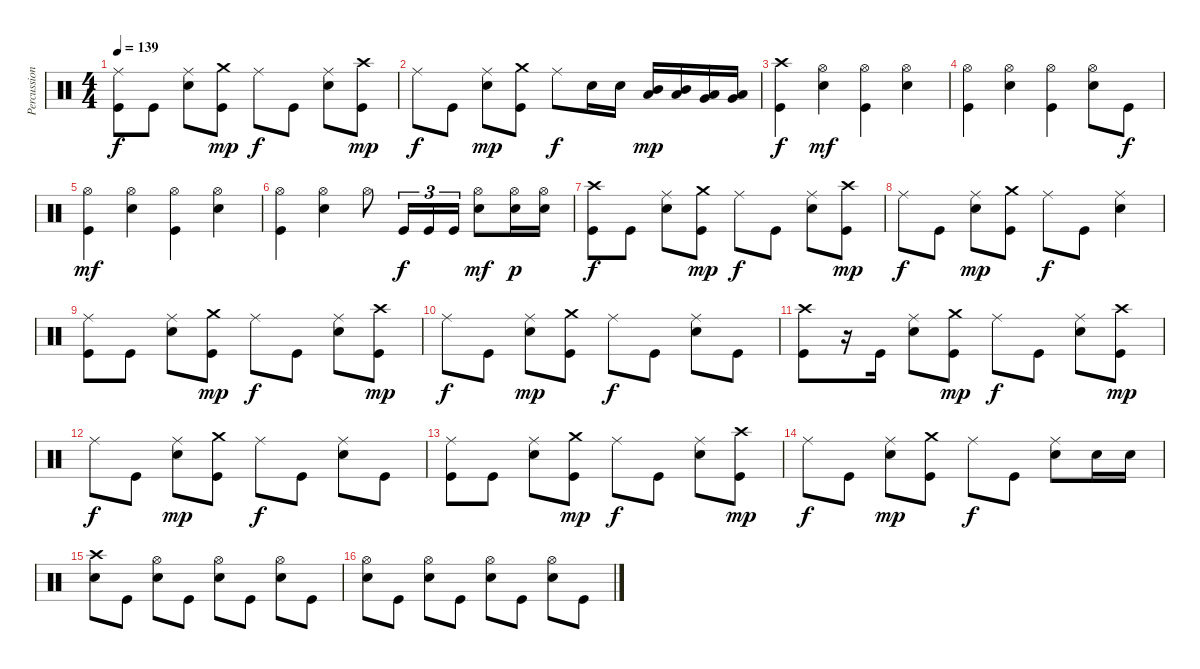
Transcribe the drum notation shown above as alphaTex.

\track ("Percussions" "Percussion") {instrument percussion}
\staff {score}
\articulation defaults
\ts (4 4)
\tempo 139
\clef neutral
\ks c
("Kick (hit)" "Ride (middle)").8{dy f} "Kick (hit)".8 ("Electric Snare (hit)" "Ride (middle)").8 ("Kick (hit)" "Crash medium (hit)").8{dy mp} "Ride (middle)".8{dy f} "Kick (hit)".8 ("Electric Snare (hit)" "Ride (middle)").8 ("Kick (hit)" "Crash high (hit)").8{dy mp} |
"Ride (middle)".8{dy f} "Kick (hit)".8 ("Electric Snare (hit)" "Ride (middle)").8{dy mp} ("Kick (hit)" "Crash medium (hit)").8 "Ride (middle)".8{dy f} "Electric Snare (hit)".16 "Electric Snare (hit)".16 ("Low Tom (hit)" "Mid Tom (hit)").16{dy mp} ("Low Tom (hit)" "Mid Tom (hit)").16 ("Very Low Tom (hit)" "Low Tom (hit)").16 ("Very Low Tom (hit)" "Low Tom (hit)").16 |
("Kick (hit)" "Crash high (hit)").4{dy f} ("Electric Snare (hit)" "Hi-Hat (open)").4{dy mf} ("Kick (hit)" "Hi-Hat (open)").4 ("Electric Snare (hit)" "Hi-Hat (open)").4 |
("Kick (hit)" "Hi-Hat (open)").4 ("Electric Snare (hit)" "Hi-Hat (open)").4 ("Kick (hit)" "Hi-Hat (open)").4 ("Electric Snare (hit)" "Hi-Hat (open)").8 "Kick (hit)".8{dy f} |
("Kick (hit)" "Hi-Hat (open)").4{dy mf} ("Electric Snare (hit)" "Hi-Hat (open)").4 ("Kick (hit)" "Hi-Hat (open)").4 ("Electric Snare (hit)" "Hi-Hat (open)").4 |
("Kick (hit)" "Hi-Hat (open)").4 ("Electric Snare (hit)" "Hi-Hat (open)").4 "Hi-Hat (open)".8 "Kick (hit)".16{tu (3 2) dy f} "Kick (hit)".16{tu (3 2)} "Kick (hit)".16{tu (3 2)} ("Electric Snare (hit)" "Hi-Hat (open)").8{dy mf} ("Electric Snare (hit)" "Hi-Hat (open)").16{dy p} ("Electric Snare (hit)" "Hi-Hat (open)").16 |
("Kick (hit)" "Crash high (hit)").8{dy f} "Kick (hit)".8 ("Electric Snare (hit)" "Ride (middle)").8 ("Kick (hit)" "Crash medium (hit)").8{dy mp} "Ride (middle)".8{dy f} "Kick (hit)".8 ("Electric Snare (hit)" "Ride (middle)").8 ("Kick (hit)" "Crash high (hit)").8{dy mp} |
"Ride (middle)".8{dy f} "Kick (hit)".8 ("Electric Snare (hit)" "Ride (middle)").8{dy mp} ("Kick (hit)" "Crash medium (hit)").8 "Ride (middle)".8{dy f} "Kick (hit)".8 ("Electric Snare (hit)" "Ride (middle)").4 |
("Kick (hit)" "Ride (middle)").8 "Kick (hit)".8 ("Electric Snare (hit)" "Ride (middle)").8 ("Kick (hit)" "Crash medium (hit)").8{dy mp} "Ride (middle)".8{dy f} "Kick (hit)".8 ("Electric Snare (hit)" "Ride (middle)").8 ("Kick (hit)" "Crash high (hit)").8{dy mp} |
"Ride (middle)".8{dy f} "Kick (hit)".8 ("Electric Snare (hit)" "Ride (middle)").8{dy mp} ("Kick (hit)" "Crash medium (hit)").8 "Ride (middle)".8{dy f} "Kick (hit)".8 ("Electric Snare (hit)" "Ride (middle)").8 "Kick (hit)".8 |
("Kick (hit)" "Crash high (hit)").8 r.16 "Kick (hit)".16 ("Electric Snare (hit)" "Ride (middle)").8 ("Kick (hit)" "Crash medium (hit)").8{dy mp} "Ride (middle)".8{dy f} "Kick (hit)".8 ("Electric Snare (hit)" "Ride (middle)").8 ("Kick (hit)" "Crash high (hit)").8{dy mp} |
"Ride (middle)".8{dy f} "Kick (hit)".8 ("Electric Snare (hit)" "Ride (middle)").8{dy mp} ("Kick (hit)" "Crash medium (hit)").8 "Ride (middle)".8{dy f} "Kick (hit)".8 ("Electric Snare (hit)" "Ride (middle)").8 "Kick (hit)".8 |
("Kick (hit)" "Ride (middle)").8 "Kick (hit)".8 ("Electric Snare (hit)" "Ride (middle)").8 ("Kick (hit)" "Crash medium (hit)").8{dy mp} "Ride (middle)".8{dy f} "Kick (hit)".8 ("Electric Snare (hit)" "Ride (middle)").8 ("Kick (hit)" "Crash high (hit)").8{dy mp} |
"Ride (middle)".8{dy f} "Kick (hit)".8 ("Electric Snare (hit)" "Ride (middle)").8{dy mp} ("Kick (hit)" "Crash medium (hit)").8 "Ride (middle)".8{dy f} "Kick (hit)".8 ("Electric Snare (hit)" "Ride (middle)").8 "Electric Snare (hit)".16 "Electric Snare (hit)".16 |
("Electric Snare (hit)" "Crash high (hit)").8 "Kick (hit)".8 ("Electric Snare (hit)" "Hi-Hat (open)").8 "Kick (hit)".8 ("Electric Snare (hit)" "Hi-Hat (open)").8 "Kick (hit)".8 ("Electric Snare (hit)" "Hi-Hat (open)").8 "Kick (hit)".8 |
("Electric Snare (hit)" "Hi-Hat (open)").8 "Kick (hit)".8 ("Electric Snare (hit)" "Hi-Hat (open)").8 "Kick (hit)".8 ("Electric Snare (hit)" "Hi-Hat (open)").8 "Kick (hit)".8 ("Electric Snare (hit)" "Hi-Hat (open)").8 "Kick (hit)".8
